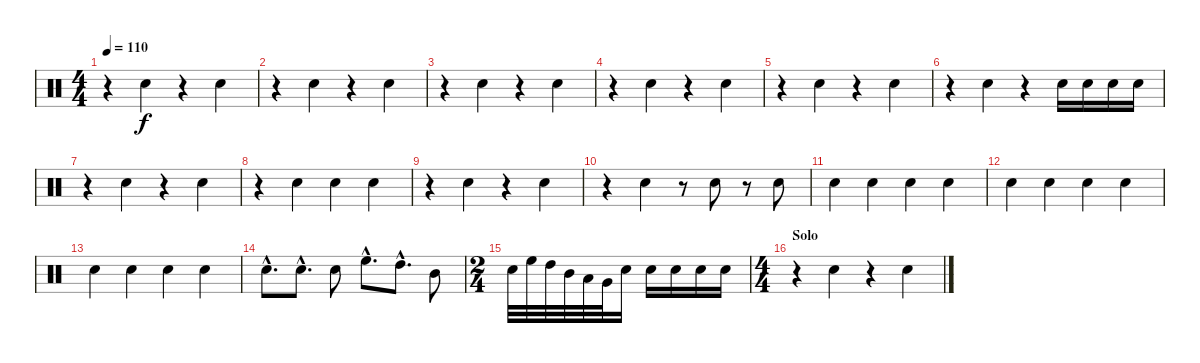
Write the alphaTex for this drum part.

\track "" {instrument percussion}
\staff {score}
\articulation defaults
\ts (4 4)
\tempo 110
\clef neutral
\ks c
r.4{dy f} "Electric Snare (hit)".4 r.4 "Electric Snare (hit)".4 |
r.4 "Electric Snare (hit)".4 r.4 "Electric Snare (hit)".4 |
r.4 "Electric Snare (hit)".4 r.4 "Electric Snare (hit)".4 |
r.4 "Electric Snare (hit)".4 r.4 "Electric Snare (hit)".4 |
r.4 "Electric Snare (hit)".4 r.4 "Electric Snare (hit)".4 |
r.4 "Electric Snare (hit)".4 r.4 "Electric Snare (hit)".16 "Electric Snare (hit)".16 "Electric Snare (hit)".16 "Electric Snare (hit)".16 |
r.4 "Electric Snare (hit)".4 r.4 "Electric Snare (hit)".4 |
r.4 "Electric Snare (hit)".4 "Electric Snare (hit)".4 "Electric Snare (hit)".4 |
r.4 "Electric Snare (hit)".4 r.4 "Electric Snare (hit)".4 |
r.4 "Electric Snare (hit)".4 r.8 "Electric Snare (hit)".8 r.8 "Electric Snare (hit)".8 |
"Electric Snare (hit)".4 "Electric Snare (hit)".4 "Electric Snare (hit)".4 "Electric Snare (hit)".4 |
"Electric Snare (hit)".4 "Electric Snare (hit)".4 "Electric Snare (hit)".4 "Electric Snare (hit)".4 |
"Electric Snare (hit)".4 "Electric Snare (hit)".4 "Electric Snare (hit)".4 "Electric Snare (hit)".4 |
"Electric Snare (hit)"{hac}.8{d} "Electric Snare (hit)"{hac}.8{d} "Electric Snare (hit)".8 "High Floor Tom (hit)"{hac}.8{d} "High Tom (hit)"{hac}.8{d} "Mid Tom (hit)".8 |
\ts (2 4)
"Electric Snare (hit)".32 "High Floor Tom (hit)".32 "High Tom (hit)".32 "Mid Tom (hit)".32 "Low Tom (hit)".32 "Very Low Tom (hit)".32 "Electric Snare (hit)".16 "Electric Snare (hit)".16 "Electric Snare (hit)".16 "Electric Snare (hit)".16 "Electric Snare (hit)".16 |
\ts (4 4)
\section ("" "Solo")
r.4 "Electric Snare (hit)".4 r.4 "Electric Snare (hit)".4
